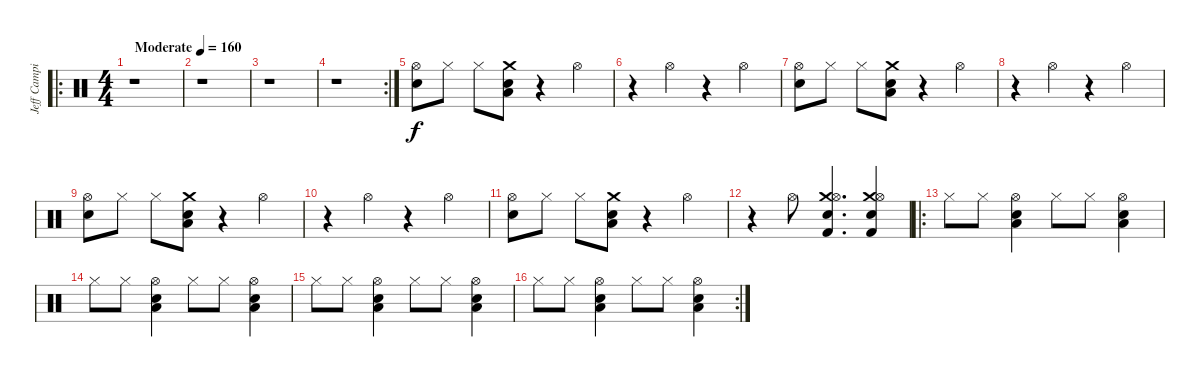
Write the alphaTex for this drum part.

\track ("Jeff Campitelli" "Jeff Campi") {instrument percussion}
\staff {score}
\articulation defaults
\ro
\ts (4 4)
\tempo (160 "Moderate")
\clef neutral
\ks c
r.1{dy f} |
r.1 |
r.1 |
\rc 2
r.1 |
("Snare (hit) 2" "Hi-Hat (open)").8 "Hi-Hat (closed)".8 "Hi-Hat (closed)".8 ("Crash medium (hit)" "Snare (hit) 2" "Low Floor Tom (hit)").8 r.4 "Hi-Hat (open)".4 |
r.4 "Hi-Hat (open)".4 r.4 "Hi-Hat (open)".4 |
("Snare (hit) 2" "Hi-Hat (open)").8 "Hi-Hat (closed)".8 "Hi-Hat (closed)".8 ("Crash medium (hit)" "Snare (hit) 2" "Low Floor Tom (hit)").8 r.4 "Hi-Hat (open)".4 |
r.4 "Hi-Hat (open)".4 r.4 "Hi-Hat (open)".4 |
("Snare (hit) 2" "Hi-Hat (open)").8 "Hi-Hat (closed)".8 "Hi-Hat (closed)".8 ("Crash medium (hit)" "Snare (hit) 2" "Low Floor Tom (hit)").8 r.4 "Hi-Hat (open)".4 |
r.4 "Hi-Hat (open)".4 r.4 "Hi-Hat (open)".4 |
("Snare (hit) 2" "Hi-Hat (open)").8 "Hi-Hat (closed)".8 "Hi-Hat (closed)".8 ("Crash medium (hit)" "Snare (hit) 2" "Low Floor Tom (hit)").8 r.4 "Hi-Hat (open)".4 |
r.4 "Hi-Hat (open)".8 ("Crash medium (hit)" "Kick (hit) 2" "Hi-Hat (open)" "Snare (hit) 2").4{d} ("Crash medium (hit)" "Kick (hit) 2" "Hi-Hat (open)" "Snare (hit) 2").4 |
\ro "Hi-Hat (closed)".8 "Hi-Hat (closed)".8
("Low Floor Tom (hit)" "Snare (hit) 2" "Hi-Hat (open)").4 "Hi-Hat (closed)".8 "Hi-Hat (closed)".8 ("Low Floor Tom (hit)" "Snare (hit) 2" "Hi-Hat (open)").4 |
"Hi-Hat (closed)".8 "Hi-Hat (closed)".8 ("Low Floor Tom (hit)" "Snare (hit) 2" "Hi-Hat (open)").4 "Hi-Hat (closed)".8 "Hi-Hat (closed)".8 ("Low Floor Tom (hit)" "Snare (hit) 2" "Hi-Hat (open)").4 |
"Hi-Hat (closed)".8 "Hi-Hat (closed)".8 ("Low Floor Tom (hit)" "Snare (hit) 2" "Hi-Hat (open)").4 "Hi-Hat (closed)".8 "Hi-Hat (closed)".8 ("Low Floor Tom (hit)" "Snare (hit) 2" "Hi-Hat (open)").4 |
\rc 2 "Hi-Hat (closed)".8 "Hi-Hat (closed)".8
("Low Floor Tom (hit)" "Snare (hit) 2" "Hi-Hat (open)").4 "Hi-Hat (closed)".8 "Hi-Hat (closed)".8 ("Low Floor Tom (hit)" "Snare (hit) 2" "Hi-Hat (open)").4
